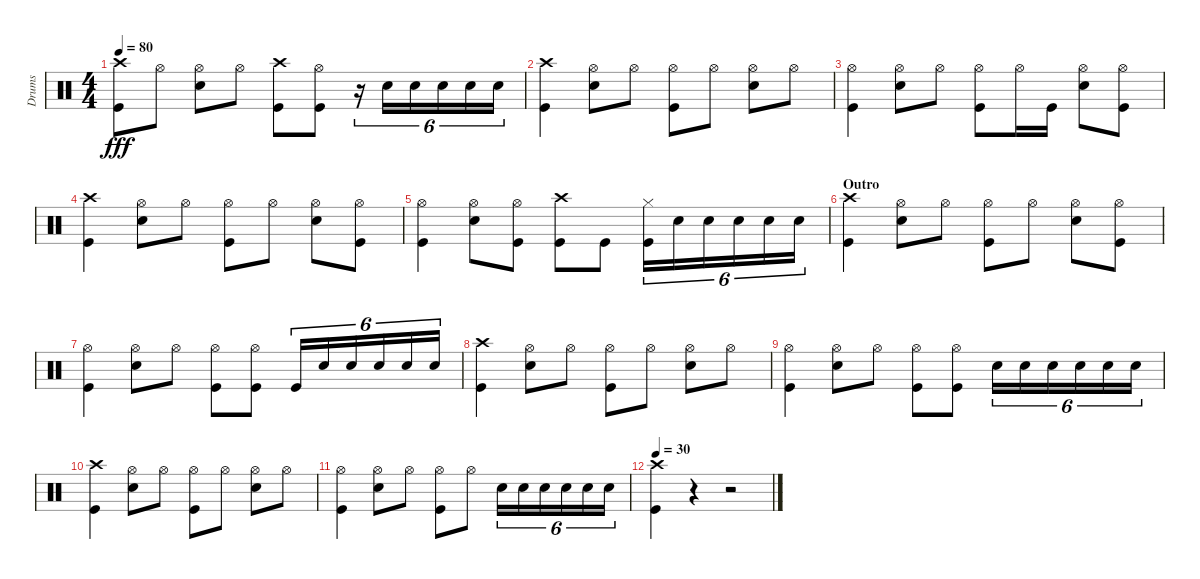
\track ("Drums" "Drums") {instrument percussion}
\staff {score}
\articulation defaults
\ts (4 4)
\tempo 80
\clef neutral
\ks c
("Crash high (hit)" "Kick (hit)").8{dy fff} "Hi-Hat (open)".8 ("Hi-Hat (open)" "Snare (hit) 2").8 "Hi-Hat (open)".8 ("Crash high (hit)" "Kick (hit)").8 ("Hi-Hat (open)" "Kick (hit)").8 r.16{tu (6 4)} "Snare (hit) 2".16{tu (6 4)} "Snare (hit) 2".16{tu (6 4)} "Snare (hit) 2".16{tu (6 4)} "Snare (hit) 2".16{tu (6 4)} "Snare (hit) 2".16{tu (6 4)} |
("Crash high (hit)" "Kick (hit)").4 ("Hi-Hat (open)" "Snare (hit) 2").8 "Hi-Hat (open)".8 ("Hi-Hat (open)" "Kick (hit)").8 "Hi-Hat (open)".8 ("Hi-Hat (open)" "Snare (hit) 2").8 "Hi-Hat (open)".8 |
("Hi-Hat (open)" "Kick (hit)").4 ("Hi-Hat (open)" "Snare (hit) 2").8 "Hi-Hat (open)".8 ("Hi-Hat (open)" "Kick (hit)").8 "Hi-Hat (open)".16 "Kick (hit)".16 ("Hi-Hat (open)" "Snare (hit) 2").8 ("Hi-Hat (open)" "Kick (hit)").8 |
("Crash high (hit)" "Kick (hit)").4 ("Hi-Hat (open)" "Snare (hit) 2").8 "Hi-Hat (open)".8 ("Hi-Hat (open)" "Kick (hit)").8 "Hi-Hat (open)".8 ("Hi-Hat (open)" "Snare (hit) 2").8 ("Hi-Hat (open)" "Kick (hit)").8 |
("Hi-Hat (open)" "Kick (hit)").4 ("Hi-Hat (open)" "Snare (hit) 2").8 ("Hi-Hat (open)" "Kick (hit)").8 ("Crash high (hit)" "Kick (hit)").8 "Kick (hit)".8 ("Hi-Hat (closed)" "Kick (hit)").16{tu (6 4)} "Snare (hit) 2".16{tu (6 4)} "Snare (hit) 2".16{tu (6 4)} "Snare (hit) 2".16{tu (6 4)} "Snare (hit) 2".16{tu (6 4)} "Snare (hit) 2".16{tu (6 4)} |
\section ("" "Outro")
("Crash high (hit)" "Kick (hit)").4 ("Hi-Hat (open)" "Snare (hit) 2").8 "Hi-Hat (open)".8 ("Hi-Hat (open)" "Kick (hit)").8 "Hi-Hat (open)".8 ("Hi-Hat (open)" "Snare (hit) 2").8 ("Hi-Hat (open)" "Kick (hit)").8 |
("Hi-Hat (open)" "Kick (hit)").4 ("Hi-Hat (open)" "Snare (hit) 2").8 "Hi-Hat (open)".8 ("Hi-Hat (open)" "Kick (hit)").8 ("Hi-Hat (open)" "Kick (hit)").8 "Kick (hit)".16{tu (6 4)} "Snare (hit) 2".16{tu (6 4)} "Snare (hit) 2".16{tu (6 4)} "Snare (hit) 2".16{tu (6 4)} "Snare (hit) 2".16{tu (6 4)} "Snare (hit) 2".16{tu (6 4)} |
("Crash high (hit)" "Kick (hit)").4 ("Hi-Hat (open)" "Snare (hit) 2").8 "Hi-Hat (open)".8 ("Hi-Hat (open)" "Kick (hit)").8 "Hi-Hat (open)".8 ("Hi-Hat (open)" "Snare (hit) 2").8 "Hi-Hat (open)".8 |
("Hi-Hat (open)" "Kick (hit)").4 ("Hi-Hat (open)" "Snare (hit) 2").8 "Hi-Hat (open)".8 ("Hi-Hat (open)" "Kick (hit)").8 ("Hi-Hat (open)" "Kick (hit)").8 "Snare (hit) 2".16{tu (6 4)} "Snare (hit) 2".16{tu (6 4)} "Snare (hit) 2".16{tu (6 4)} "Snare (hit) 2".16{tu (6 4)} "Snare (hit) 2".16{tu (6 4)} "Snare (hit) 2".16{tu (6 4)} |
("Crash high (hit)" "Kick (hit)").4 ("Hi-Hat (open)" "Snare (hit) 2").8 "Hi-Hat (open)".8 ("Hi-Hat (open)" "Kick (hit)").8 "Hi-Hat (open)".8 ("Hi-Hat (open)" "Snare (hit) 2").8 "Hi-Hat (open)".8 |
("Hi-Hat (open)" "Kick (hit)").4 ("Hi-Hat (open)" "Snare (hit) 2").8 "Hi-Hat (open)".8 ("Hi-Hat (open)" "Kick (hit)").8 "Hi-Hat (open)".8 "Snare (hit) 2".16{tu (6 4)} "Snare (hit) 2".16{tu (6 4)} "Snare (hit) 2".16{tu (6 4)} "Snare (hit) 2".16{tu (6 4)} "Snare (hit) 2".16{tu (6 4)} "Snare (hit) 2".16{tu (6 4)} |
\tempo 30
("Crash high (hit)" "Kick (hit)").4 r.4 r.2
